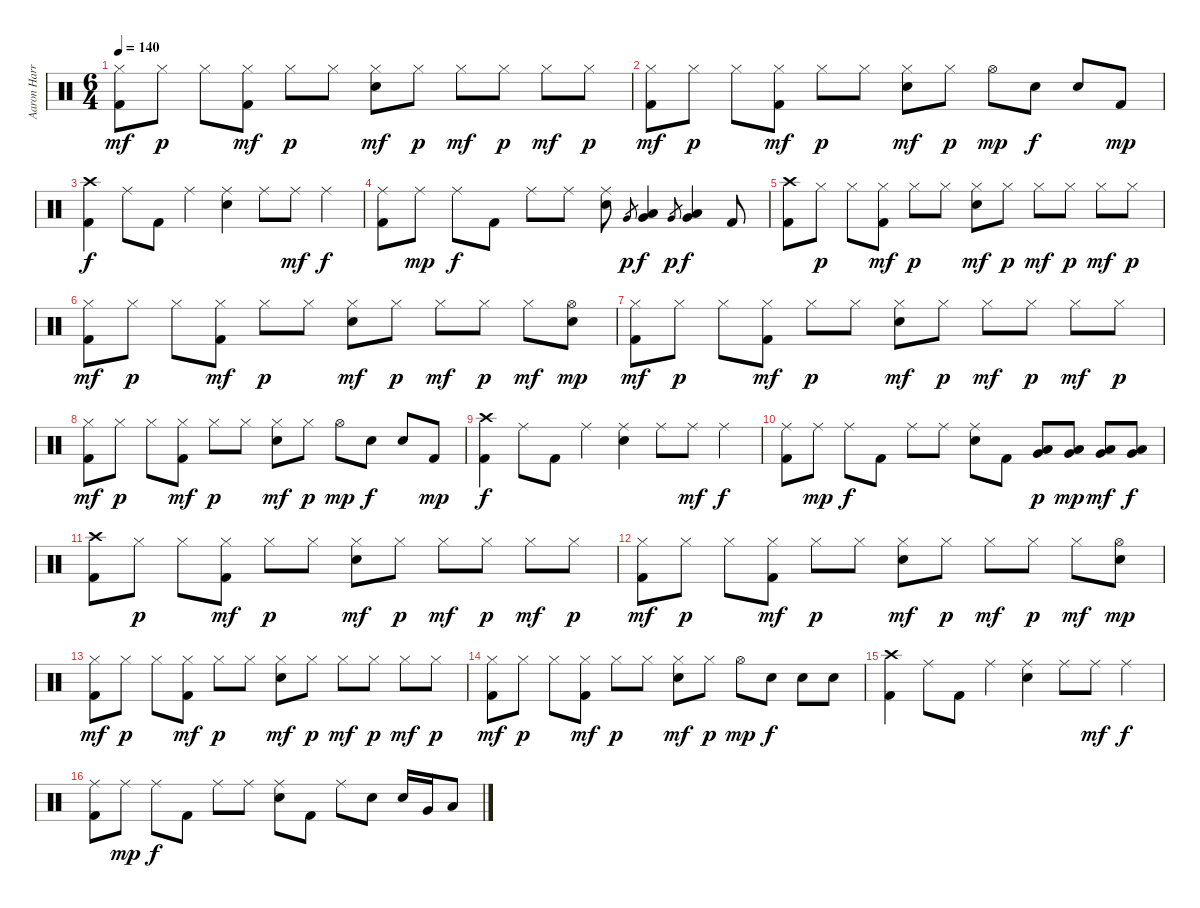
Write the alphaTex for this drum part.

\track ("Aaron Harris" "Aaron Harr") {instrument percussion}
\staff {score}
\articulation defaults
\ts (6 4)
\tempo 140
\clef neutral
\ks c
("Hi-Hat (closed)" "Kick (hit) 2").8{dy mf} "Hi-Hat (closed)".8{dy p} "Hi-Hat (closed)".8 ("Hi-Hat (closed)" "Kick (hit) 2").8{dy mf} "Hi-Hat (closed)".8{dy p} "Hi-Hat (closed)".8 ("Hi-Hat (closed)" "Electric Snare (hit)").8{dy mf} "Hi-Hat (closed)".8{dy p} "Hi-Hat (closed)".8{dy mf} "Hi-Hat (closed)".8{dy p} "Hi-Hat (closed)".8{dy mf} "Hi-Hat (closed)".8{dy p} |
("Hi-Hat (closed)" "Kick (hit) 2").8{dy mf} "Hi-Hat (closed)".8{dy p} "Hi-Hat (closed)".8 ("Hi-Hat (closed)" "Kick (hit) 2").8{dy mf} "Hi-Hat (closed)".8{dy p} "Hi-Hat (closed)".8 ("Hi-Hat (closed)" "Electric Snare (hit)").8{dy mf} "Hi-Hat (closed)".8{dy p} "Hi-Hat (open)".8{dy mp} "Electric Snare (hit)".8{dy f} "Electric Snare (hit)".8 "Kick (hit) 2".8{dy mp} |
("Crash high (hit)" "Kick (hit) 2").4{dy f} "Ride (middle)".8 "Kick (hit) 2".8 "Ride (middle)".4 ("Ride (middle)" "Electric Snare (hit)").4 "Ride (middle)".8 "Ride (middle)".8{dy mf} "Ride (middle)".4{dy f} |
("Ride (middle)" "Kick (hit) 2").8 "Ride (middle)".8{dy mp} "Ride (middle)".8{dy f} "Kick (hit) 2".8 "Ride (middle)".8 "Ride (middle)".8 ("Ride (middle)" "Electric Snare (hit)").8 "Very Low Tom (hit)".8{gr dy p} ("Low Tom (hit)" "Very Low Tom (hit)").4{dy f} "Very Low Tom (hit)".8{gr dy p} ("Very Low Tom (hit)" "Low Floor Tom (hit)").4{dy f} "Kick (hit) 2".8 |
("Crash high (hit)" "Kick (hit) 2").8 "Hi-Hat (closed)".8{dy p} "Hi-Hat (closed)".8 ("Hi-Hat (closed)" "Kick (hit) 2").8{dy mf} "Hi-Hat (closed)".8{dy p} "Hi-Hat (closed)".8 ("Hi-Hat (closed)" "Electric Snare (hit)").8{dy mf} "Hi-Hat (closed)".8{dy p} "Hi-Hat (closed)".8{dy mf} "Hi-Hat (closed)".8{dy p} "Hi-Hat (closed)".8{dy mf} "Hi-Hat (closed)".8{dy p} |
("Hi-Hat (closed)" "Kick (hit) 2").8{dy mf} "Hi-Hat (closed)".8{dy p} "Hi-Hat (closed)".8 ("Hi-Hat (closed)" "Kick (hit) 2").8{dy mf} "Hi-Hat (closed)".8{dy p} "Hi-Hat (closed)".8 ("Hi-Hat (closed)" "Electric Snare (hit)").8{dy mf} "Hi-Hat (closed)".8{dy p} "Hi-Hat (closed)".8{dy mf} "Hi-Hat (closed)".8{dy p} "Hi-Hat (closed)".8{dy mf} ("Hi-Hat (open)" "Electric Snare (hit)").8{dy mp} |
("Hi-Hat (closed)" "Kick (hit) 2").8{dy mf} "Hi-Hat (closed)".8{dy p} "Hi-Hat (closed)".8 ("Hi-Hat (closed)" "Kick (hit) 2").8{dy mf} "Hi-Hat (closed)".8{dy p} "Hi-Hat (closed)".8 ("Hi-Hat (closed)" "Electric Snare (hit)").8{dy mf} "Hi-Hat (closed)".8{dy p} "Hi-Hat (closed)".8{dy mf} "Hi-Hat (closed)".8{dy p} "Hi-Hat (closed)".8{dy mf} "Hi-Hat (closed)".8{dy p} |
("Hi-Hat (closed)" "Kick (hit) 2").8{dy mf} "Hi-Hat (closed)".8{dy p} "Hi-Hat (closed)".8 ("Hi-Hat (closed)" "Kick (hit) 2").8{dy mf} "Hi-Hat (closed)".8{dy p} "Hi-Hat (closed)".8 ("Hi-Hat (closed)" "Electric Snare (hit)").8{dy mf} "Hi-Hat (closed)".8{dy p} "Hi-Hat (open)".8{dy mp} "Electric Snare (hit)".8{dy f} "Electric Snare (hit)".8 "Kick (hit) 2".8{dy mp} |
("Crash high (hit)" "Kick (hit) 2").4{dy f} "Ride (middle)".8 "Kick (hit) 2".8 "Ride (middle)".4 ("Ride (middle)" "Electric Snare (hit)").4 "Ride (middle)".8 "Ride (middle)".8{dy mf} "Ride (middle)".4{dy f} |
("Ride (middle)" "Kick (hit) 2").8 "Ride (middle)".8{dy mp} "Ride (middle)".8{dy f} "Kick (hit) 2".8 "Ride (middle)".8 "Ride (middle)".8 ("Ride (middle)" "Electric Snare (hit)").8 "Kick (hit) 2".8 ("Very Low Tom (hit)" "Low Floor Tom (hit)").8{dy p} ("Very Low Tom (hit)" "Low Floor Tom (hit)").8{dy mp} ("Very Low Tom (hit)" "Low Floor Tom (hit)").8{dy mf} ("Very Low Tom (hit)" "Low Floor Tom (hit)").8{dy f} |
("Crash high (hit)" "Kick (hit) 2").8 "Hi-Hat (closed)".8{dy p} "Hi-Hat (closed)".8 ("Hi-Hat (closed)" "Kick (hit) 2").8{dy mf} "Hi-Hat (closed)".8{dy p} "Hi-Hat (closed)".8 ("Hi-Hat (closed)" "Electric Snare (hit)").8{dy mf} "Hi-Hat (closed)".8{dy p} "Hi-Hat (closed)".8{dy mf} "Hi-Hat (closed)".8{dy p} "Hi-Hat (closed)".8{dy mf} "Hi-Hat (closed)".8{dy p} |
("Hi-Hat (closed)" "Kick (hit) 2").8{dy mf} "Hi-Hat (closed)".8{dy p} "Hi-Hat (closed)".8 ("Hi-Hat (closed)" "Kick (hit) 2").8{dy mf} "Hi-Hat (closed)".8{dy p} "Hi-Hat (closed)".8 ("Hi-Hat (closed)" "Electric Snare (hit)").8{dy mf} "Hi-Hat (closed)".8{dy p} "Hi-Hat (closed)".8{dy mf} "Hi-Hat (closed)".8{dy p} "Hi-Hat (closed)".8{dy mf} ("Hi-Hat (open)" "Electric Snare (hit)").8{dy mp} |
("Hi-Hat (closed)" "Kick (hit) 2").8{dy mf} "Hi-Hat (closed)".8{dy p} "Hi-Hat (closed)".8 ("Hi-Hat (closed)" "Kick (hit) 2").8{dy mf} "Hi-Hat (closed)".8{dy p} "Hi-Hat (closed)".8 ("Hi-Hat (closed)" "Electric Snare (hit)").8{dy mf} "Hi-Hat (closed)".8{dy p} "Hi-Hat (closed)".8{dy mf} "Hi-Hat (closed)".8{dy p} "Hi-Hat (closed)".8{dy mf} "Hi-Hat (closed)".8{dy p} |
("Hi-Hat (closed)" "Kick (hit) 2").8{dy mf} "Hi-Hat (closed)".8{dy p} "Hi-Hat (closed)".8 ("Hi-Hat (closed)" "Kick (hit) 2").8{dy mf} "Hi-Hat (closed)".8{dy p} "Hi-Hat (closed)".8 ("Hi-Hat (closed)" "Electric Snare (hit)").8{dy mf} "Hi-Hat (closed)".8{dy p} "Hi-Hat (open)".8{dy mp} "Electric Snare (hit)".8{dy f} "Electric Snare (hit)".8 "Electric Snare (hit)".8 |
("Crash high (hit)" "Kick (hit) 2").4 "Ride (middle)".8 "Kick (hit) 2".8 "Ride (middle)".4 ("Ride (middle)" "Electric Snare (hit)").4 "Ride (middle)".8 "Ride (middle)".8{dy mf} "Ride (middle)".4{dy f} |
("Ride (middle)" "Kick (hit) 2").8 "Ride (middle)".8{dy mp} "Ride (middle)".8{dy f} "Kick (hit) 2".8 "Ride (middle)".8 "Ride (middle)".8 ("Ride (middle)" "Electric Snare (hit)").8 "Kick (hit) 2".8 "Ride (middle)".8 "Electric Snare (hit)".8 "Electric Snare (hit)".16 "Very Low Tom (hit)".16 "Low Floor Tom (hit)".8
